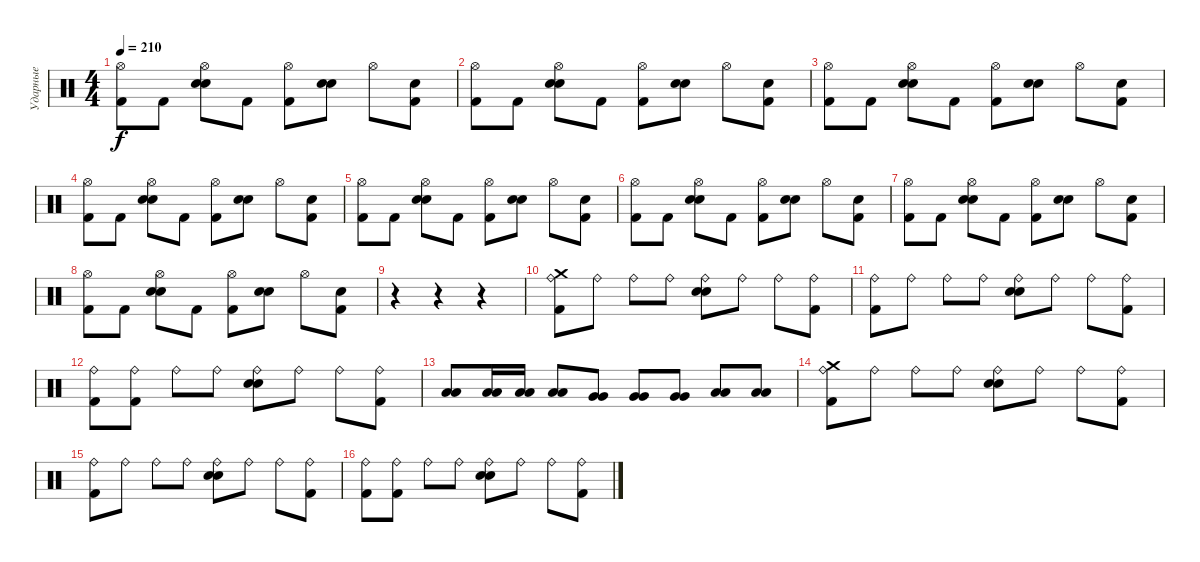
\track ("Ударные" "Ударные") {instrument percussion}
\staff {score}
\articulation defaults
\ts (4 4)
\tempo 210
\clef neutral
\ks c
("Hi-Hat (open)" "Kick (hit) 2").8{dy f} "Kick (hit) 2".8 ("Hi-Hat (open)" "Electric Snare (hit)" "Snare (hit) 2").8 "Kick (hit) 2".8 ("Hi-Hat (open)" "Kick (hit) 2").8 ("Electric Snare (hit)" "Snare (hit) 2").8 "Hi-Hat (open)".8 ("Kick (hit) 2" "Electric Snare (hit)").8 |
("Hi-Hat (open)" "Kick (hit) 2").8 "Kick (hit) 2".8 ("Hi-Hat (open)" "Electric Snare (hit)" "Snare (hit) 2").8 "Kick (hit) 2".8 ("Hi-Hat (open)" "Kick (hit) 2").8 ("Electric Snare (hit)" "Snare (hit) 2").8 "Hi-Hat (open)".8 ("Kick (hit) 2" "Electric Snare (hit)").8 |
("Hi-Hat (open)" "Kick (hit) 2").8 "Kick (hit) 2".8 ("Hi-Hat (open)" "Electric Snare (hit)" "Snare (hit) 2").8 "Kick (hit) 2".8 ("Hi-Hat (open)" "Kick (hit) 2").8 ("Electric Snare (hit)" "Snare (hit) 2").8 "Hi-Hat (open)".8 ("Kick (hit) 2" "Electric Snare (hit)").8 |
("Hi-Hat (open)" "Kick (hit) 2").8 "Kick (hit) 2".8 ("Hi-Hat (open)" "Electric Snare (hit)" "Snare (hit) 2").8 "Kick (hit) 2".8 ("Hi-Hat (open)" "Kick (hit) 2").8 ("Electric Snare (hit)" "Snare (hit) 2").8 "Hi-Hat (open)".8 ("Kick (hit) 2" "Electric Snare (hit)").8 |
("Hi-Hat (open)" "Kick (hit) 2").8 "Kick (hit) 2".8 ("Hi-Hat (open)" "Electric Snare (hit)" "Snare (hit) 2").8 "Kick (hit) 2".8 ("Hi-Hat (open)" "Kick (hit) 2").8 ("Electric Snare (hit)" "Snare (hit) 2").8 "Hi-Hat (open)".8 ("Kick (hit) 2" "Electric Snare (hit)").8 |
("Hi-Hat (open)" "Kick (hit) 2").8 "Kick (hit) 2".8 ("Hi-Hat (open)" "Electric Snare (hit)" "Snare (hit) 2").8 "Kick (hit) 2".8 ("Hi-Hat (open)" "Kick (hit) 2").8 ("Electric Snare (hit)" "Snare (hit) 2").8 "Hi-Hat (open)".8 ("Kick (hit) 2" "Electric Snare (hit)").8 |
("Hi-Hat (open)" "Kick (hit) 2").8 "Kick (hit) 2".8 ("Hi-Hat (open)" "Electric Snare (hit)" "Snare (hit) 2").8 "Kick (hit) 2".8 ("Hi-Hat (open)" "Kick (hit) 2").8 ("Electric Snare (hit)" "Snare (hit) 2").8 "Hi-Hat (open)".8 ("Kick (hit) 2" "Electric Snare (hit)").8 |
("Hi-Hat (open)" "Kick (hit) 2").8 "Kick (hit) 2".8 ("Hi-Hat (open)" "Electric Snare (hit)" "Snare (hit) 2").8 "Kick (hit) 2".8 ("Hi-Hat (open)" "Kick (hit) 2").8 ("Electric Snare (hit)" "Snare (hit) 2").8 "Hi-Hat (open)".8 ("Kick (hit) 2" "Electric Snare (hit)").8 |
r.4 r.4 r.4 |
("Crash medium (hit)" "Ride (bell)" "Kick (hit) 2").8 "Ride (bell)".8 "Ride (bell)".8 "Ride (bell)".8 ("Ride (bell)" "Electric Snare (hit)" "Snare (hit) 2").8 "Ride (bell)".8 "Ride (bell)".8 ("Ride (bell)" "Kick (hit) 2").8 |
("Ride (bell)" "Kick (hit) 2").8 "Ride (bell)".8 "Ride (bell)".8 "Ride (bell)".8 ("Ride (bell)" "Electric Snare (hit)" "Snare (hit) 2").8 "Ride (bell)".8 "Ride (bell)".8 ("Ride (bell)" "Kick (hit) 2").8 |
("Ride (bell)" "Kick (hit) 2").8 ("Ride (bell)" "Kick (hit) 2").8 "Ride (bell)".8 "Ride (bell)".8 ("Ride (bell)" "Electric Snare (hit)" "Snare (hit) 2").8 "Ride (bell)".8 "Ride (bell)".8 ("Ride (bell)" "Kick (hit) 2").8 |
("Low Floor Tom (hit)" "Low Floor Tom (hit)").8 ("Low Floor Tom (hit)" "Low Floor Tom (hit)").16 ("Low Floor Tom (hit)" "Low Floor Tom (hit)").16 ("Low Floor Tom (hit)" "Low Floor Tom (hit)").8 ("Very Low Tom (hit)" "Very Low Tom (hit)").8 ("Very Low Tom (hit)" "Very Low Tom (hit)").8 ("Very Low Tom (hit)" "Very Low Tom (hit)").8 ("Low Tom (hit)" "Low Tom (hit)").8 ("Low Tom (hit)" "Low Tom (hit)").8 |
("Crash medium (hit)" "Ride (bell)" "Kick (hit) 2").8 "Ride (bell)".8 "Ride (bell)".8 "Ride (bell)".8 ("Ride (bell)" "Electric Snare (hit)" "Snare (hit) 2").8 "Ride (bell)".8 "Ride (bell)".8 ("Ride (bell)" "Kick (hit) 2").8 |
("Ride (bell)" "Kick (hit) 2").8 "Ride (bell)".8 "Ride (bell)".8 "Ride (bell)".8 ("Ride (bell)" "Electric Snare (hit)" "Snare (hit) 2").8 "Ride (bell)".8 "Ride (bell)".8 ("Ride (bell)" "Kick (hit) 2").8 |
("Ride (bell)" "Kick (hit) 2").8 ("Ride (bell)" "Kick (hit) 2").8 "Ride (bell)".8 "Ride (bell)".8 ("Ride (bell)" "Electric Snare (hit)" "Snare (hit) 2").8 "Ride (bell)".8 "Ride (bell)".8 ("Ride (bell)" "Kick (hit) 2").8
